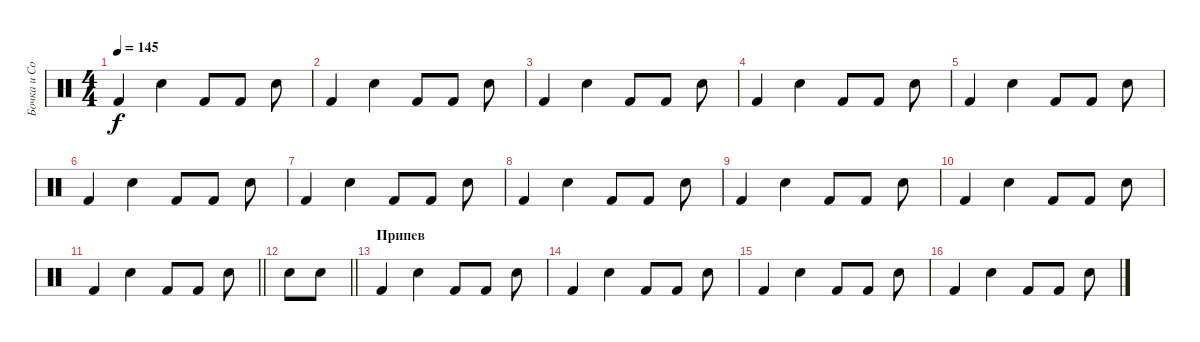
\track ("Бочка и Сольник" "Бочка и Со") {instrument percussion}
\staff {score}
\articulation defaults
\ts (4 4)
\tempo 145
\clef neutral
\ks c "Kick (hit) 2".4{dy f} "Snare (hit) 2".4 "Kick (hit) 2".8 "Kick (hit) 2".8 "Snare (hit) 2".8
|
"Kick (hit) 2".4 "Snare (hit) 2".4 "Kick (hit) 2".8 "Kick (hit) 2".8 "Snare (hit) 2".8 |
"Kick (hit) 2".4 "Snare (hit) 2".4 "Kick (hit) 2".8 "Kick (hit) 2".8 "Snare (hit) 2".8 |
"Kick (hit) 2".4 "Snare (hit) 2".4 "Kick (hit) 2".8 "Kick (hit) 2".8 "Snare (hit) 2".8 |
"Kick (hit) 2".4 "Snare (hit) 2".4 "Kick (hit) 2".8 "Kick (hit) 2".8 "Snare (hit) 2".8 |
"Kick (hit) 2".4 "Snare (hit) 2".4 "Kick (hit) 2".8 "Kick (hit) 2".8 "Snare (hit) 2".8 |
"Kick (hit) 2".4 "Snare (hit) 2".4 "Kick (hit) 2".8 "Kick (hit) 2".8 "Snare (hit) 2".8 |
"Kick (hit) 2".4 "Snare (hit) 2".4 "Kick (hit) 2".8 "Kick (hit) 2".8 "Snare (hit) 2".8 |
"Kick (hit) 2".4 "Snare (hit) 2".4 "Kick (hit) 2".8 "Kick (hit) 2".8 "Snare (hit) 2".8 |
"Kick (hit) 2".4 "Snare (hit) 2".4 "Kick (hit) 2".8 "Kick (hit) 2".8 "Snare (hit) 2".8 |
\barLineRight lightlight "Kick (hit) 2".4 "Snare (hit) 2".4 "Kick (hit) 2".8 "Kick (hit) 2".8 "Snare (hit) 2".8
|
\barLineRight lightlight "Snare (hit) 2".8 "Snare (hit) 2".8
|
\section ("" "Припев")
"Kick (hit) 2".4 "Snare (hit) 2".4 "Kick (hit) 2".8 "Kick (hit) 2".8 "Snare (hit) 2".8 |
"Kick (hit) 2".4 "Snare (hit) 2".4 "Kick (hit) 2".8 "Kick (hit) 2".8 "Snare (hit) 2".8 |
"Kick (hit) 2".4 "Snare (hit) 2".4 "Kick (hit) 2".8 "Kick (hit) 2".8 "Snare (hit) 2".8 |
"Kick (hit) 2".4 "Snare (hit) 2".4 "Kick (hit) 2".8 "Kick (hit) 2".8 "Snare (hit) 2".8
